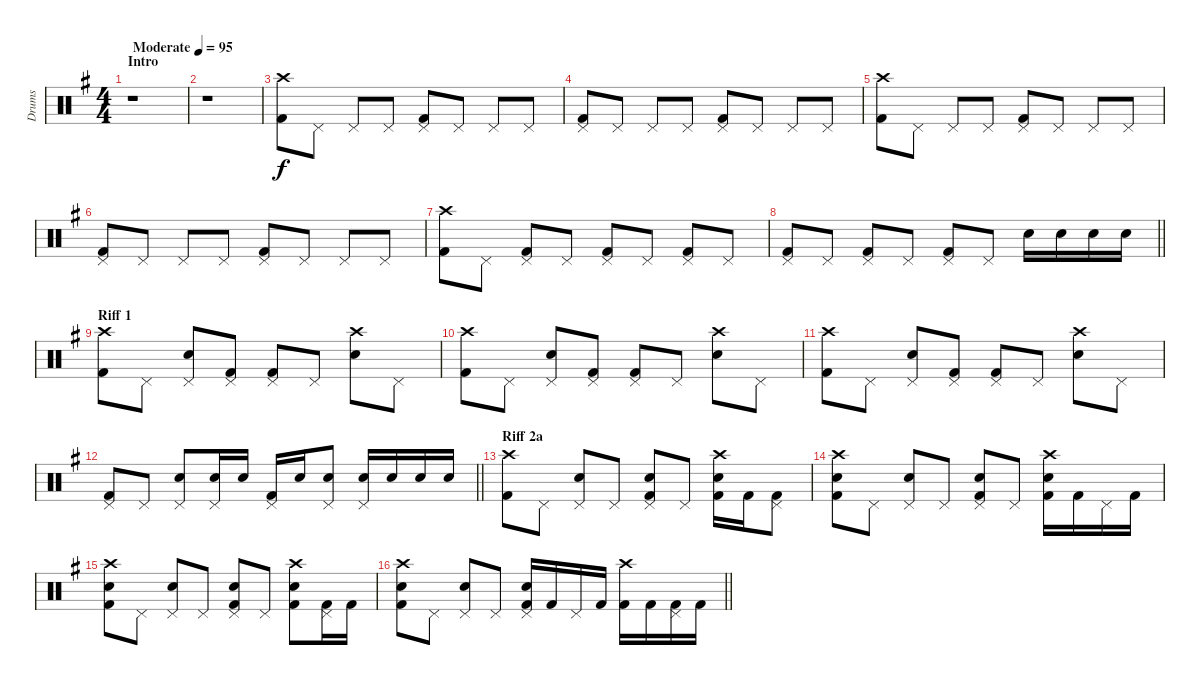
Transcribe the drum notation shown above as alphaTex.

\track ("Drums" "Drums") {instrument percussion}
\staff {score}
\articulation defaults
\ts (4 4)
\section ("" "Intro")
\tempo (95 "Moderate")
\clef neutral
\ks eminor
r.1{dy f} |
r.1 |
("Crash high (hit)" "Kick (hit) 2").8 "Pedal Hi-Hat (hit)".8 "Pedal Hi-Hat (hit)".8 "Pedal Hi-Hat (hit)".8 ("Pedal Hi-Hat (hit)" "Kick (hit) 2").8 "Pedal Hi-Hat (hit)".8 "Pedal Hi-Hat (hit)".8 "Pedal Hi-Hat (hit)".8 |
("Pedal Hi-Hat (hit)" "Kick (hit) 2").8 "Pedal Hi-Hat (hit)".8 "Pedal Hi-Hat (hit)".8 "Pedal Hi-Hat (hit)".8 ("Pedal Hi-Hat (hit)" "Kick (hit) 2").8 "Pedal Hi-Hat (hit)".8 "Pedal Hi-Hat (hit)".8 "Pedal Hi-Hat (hit)".8 |
("Crash high (hit)" "Kick (hit) 2").8 "Pedal Hi-Hat (hit)".8 "Pedal Hi-Hat (hit)".8 "Pedal Hi-Hat (hit)".8 ("Pedal Hi-Hat (hit)" "Kick (hit) 2").8 "Pedal Hi-Hat (hit)".8 "Pedal Hi-Hat (hit)".8 "Pedal Hi-Hat (hit)".8 |
("Pedal Hi-Hat (hit)" "Kick (hit) 2").8 "Pedal Hi-Hat (hit)".8 "Pedal Hi-Hat (hit)".8 "Pedal Hi-Hat (hit)".8 ("Pedal Hi-Hat (hit)" "Kick (hit) 2").8 "Pedal Hi-Hat (hit)".8 "Pedal Hi-Hat (hit)".8 "Pedal Hi-Hat (hit)".8 |
("Crash high (hit)" "Kick (hit) 2").8 "Pedal Hi-Hat (hit)".8 ("Pedal Hi-Hat (hit)" "Kick (hit) 2").8 "Pedal Hi-Hat (hit)".8 ("Pedal Hi-Hat (hit)" "Kick (hit) 2").8 "Pedal Hi-Hat (hit)".8 ("Pedal Hi-Hat (hit)" "Kick (hit) 2").8 "Pedal Hi-Hat (hit)".8 |
\barLineRight lightlight
("Pedal Hi-Hat (hit)" "Kick (hit) 2").8 "Pedal Hi-Hat (hit)".8 ("Pedal Hi-Hat (hit)" "Kick (hit) 2").8 "Pedal Hi-Hat (hit)".8 ("Pedal Hi-Hat (hit)" "Kick (hit) 2").8 "Pedal Hi-Hat (hit)".8 "Electric Snare (hit)".16 "Electric Snare (hit)".16 "Electric Snare (hit)".16 "Electric Snare (hit)".16 |
\section ("" "Riff 1")
("Crash high (hit)" "Kick (hit) 2").8 "Pedal Hi-Hat (hit)".8 ("Pedal Hi-Hat (hit)" "Electric Snare (hit)").8 ("Pedal Hi-Hat (hit)" "Kick (hit) 2").8 ("Pedal Hi-Hat (hit)" "Kick (hit) 2").8 "Pedal Hi-Hat (hit)".8 ("Crash high (hit)" "Electric Snare (hit)").8 "Pedal Hi-Hat (hit)".8 |
("Crash high (hit)" "Kick (hit) 2").8 "Pedal Hi-Hat (hit)".8 ("Pedal Hi-Hat (hit)" "Electric Snare (hit)").8 ("Pedal Hi-Hat (hit)" "Kick (hit) 2").8 ("Pedal Hi-Hat (hit)" "Kick (hit) 2").8 "Pedal Hi-Hat (hit)".8 ("Crash high (hit)" "Electric Snare (hit)").8 "Pedal Hi-Hat (hit)".8 |
("Crash high (hit)" "Kick (hit) 2").8 "Pedal Hi-Hat (hit)".8 ("Pedal Hi-Hat (hit)" "Electric Snare (hit)").8 ("Pedal Hi-Hat (hit)" "Kick (hit) 2").8 ("Pedal Hi-Hat (hit)" "Kick (hit) 2").8 "Pedal Hi-Hat (hit)".8 ("Crash high (hit)" "Electric Snare (hit)").8 "Pedal Hi-Hat (hit)".8 |
\barLineRight lightlight
("Pedal Hi-Hat (hit)" "Kick (hit) 2").8 "Pedal Hi-Hat (hit)".8 ("Pedal Hi-Hat (hit)" "Electric Snare (hit)").8 ("Pedal Hi-Hat (hit)" "Electric Snare (hit)").16 "Electric Snare (hit)".16 ("Pedal Hi-Hat (hit)" "Kick (hit) 2").16 "Electric Snare (hit)".16 ("Pedal Hi-Hat (hit)" "Electric Snare (hit)").8 ("Pedal Hi-Hat (hit)" "Electric Snare (hit)").16 "Electric Snare (hit)".16 "Electric Snare (hit)".16 "Electric Snare (hit)".16 |
\section ("" "Riff 2a")
("Crash high (hit)" "Kick (hit) 2").8 "Pedal Hi-Hat (hit)".8 ("Pedal Hi-Hat (hit)" "Electric Snare (hit)").8 "Pedal Hi-Hat (hit)".8 ("Pedal Hi-Hat (hit)" "Electric Snare (hit)" "Kick (hit) 2").8 "Pedal Hi-Hat (hit)".8 ("Crash high (hit)" "Electric Snare (hit)" "Kick (hit) 2").16 "Kick (hit) 2".16 ("Pedal Hi-Hat (hit)" "Kick (hit) 2").8 |
("Crash high (hit)" "Electric Snare (hit)" "Kick (hit) 2").8 "Pedal Hi-Hat (hit)".8 ("Pedal Hi-Hat (hit)" "Electric Snare (hit)").8 "Pedal Hi-Hat (hit)".8 ("Pedal Hi-Hat (hit)" "Electric Snare (hit)" "Kick (hit) 2").8 "Pedal Hi-Hat (hit)".8 ("Crash high (hit)" "Electric Snare (hit)" "Kick (hit) 2").16 "Kick (hit) 2".16 "Pedal Hi-Hat (hit)".16 "Kick (hit) 2".16 |
("Crash high (hit)" "Electric Snare (hit)" "Kick (hit) 2").8 "Pedal Hi-Hat (hit)".8 ("Pedal Hi-Hat (hit)" "Electric Snare (hit)").8 "Pedal Hi-Hat (hit)".8 ("Pedal Hi-Hat (hit)" "Electric Snare (hit)" "Kick (hit) 2").8 "Pedal Hi-Hat (hit)".8 ("Crash high (hit)" "Electric Snare (hit)" "Kick (hit) 2").8 ("Pedal Hi-Hat (hit)" "Kick (hit) 2").16 "Kick (hit) 2".16 |
\barLineRight lightlight
("Crash high (hit)" "Electric Snare (hit)" "Kick (hit) 2").8 "Pedal Hi-Hat (hit)".8 ("Pedal Hi-Hat (hit)" "Electric Snare (hit)").8 "Pedal Hi-Hat (hit)".8 ("Pedal Hi-Hat (hit)" "Electric Snare (hit)" "Kick (hit) 2").16 "Kick (hit) 2".16 "Pedal Hi-Hat (hit)".16 "Kick (hit) 2".16 ("Crash high (hit)" "Kick (hit) 2").16 "Kick (hit) 2".16 ("Pedal Hi-Hat (hit)" "Kick (hit) 2").16 "Kick (hit) 2".16
